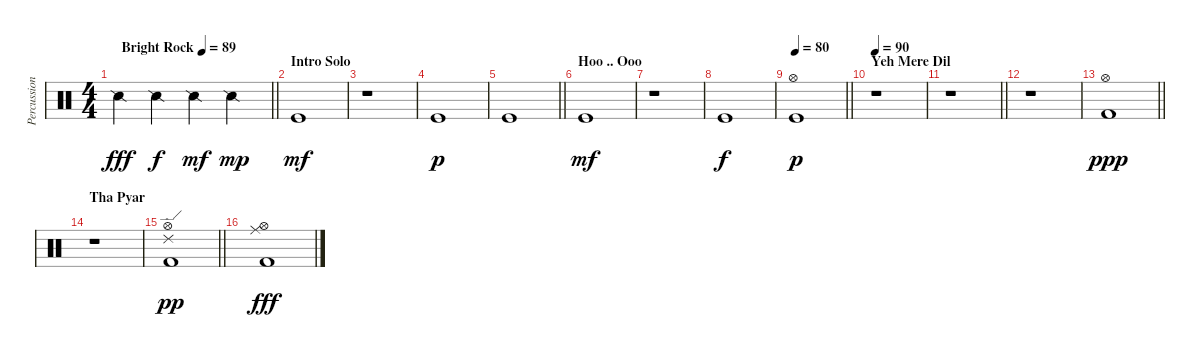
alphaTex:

\track ("Percussion" "Percussion") {instrument percussion}
\staff {score}
\articulation defaults
\ts (4 4)
\tempo (89 "Bright Rock")
\clef neutral
\barLineRight lightlight
\ks c "Snare (side stick) 2".4{dy fff} "Snare (side stick) 2".4{dy f} "Snare (side stick) 2".4{dy mf} "Snare (side stick) 2".4{dy mp}
|
\section ("" "Intro Solo")
"Kick (hit)".1{dy mf} |
r.1 |
"Kick (hit)".1{dy p} |
\barLineRight lightlight "Kick (hit)".1
|
\section ("" "Hoo .. Ooo")
"Kick (hit)".1{dy mf} |
r.1 |
"Kick (hit)".1{dy f} |
\tempo 80
\barLineRight lightlight
("Hi-Hat (open)" "Kick (hit)").1{dy p} |
\section ("" "Yeh Mere Dil")
\tempo 90
r.1 |
\barLineRight lightlight
r.1 |
r.1 |
\barLineRight lightlight
("Kick (hit) 2" "Hi-Hat (open)").1{dy ppp} |
\section ("" "Tha Pyar")
r.1 |
\barLineRight lightlight
("Kick (hit) 2" "Hi-Hat (open)" "Ride (edge) 2").1{dy pp} |
("Kick (hit) 2" "Hi-Hat (open)" "Ride (middle)").1{dy fff}
